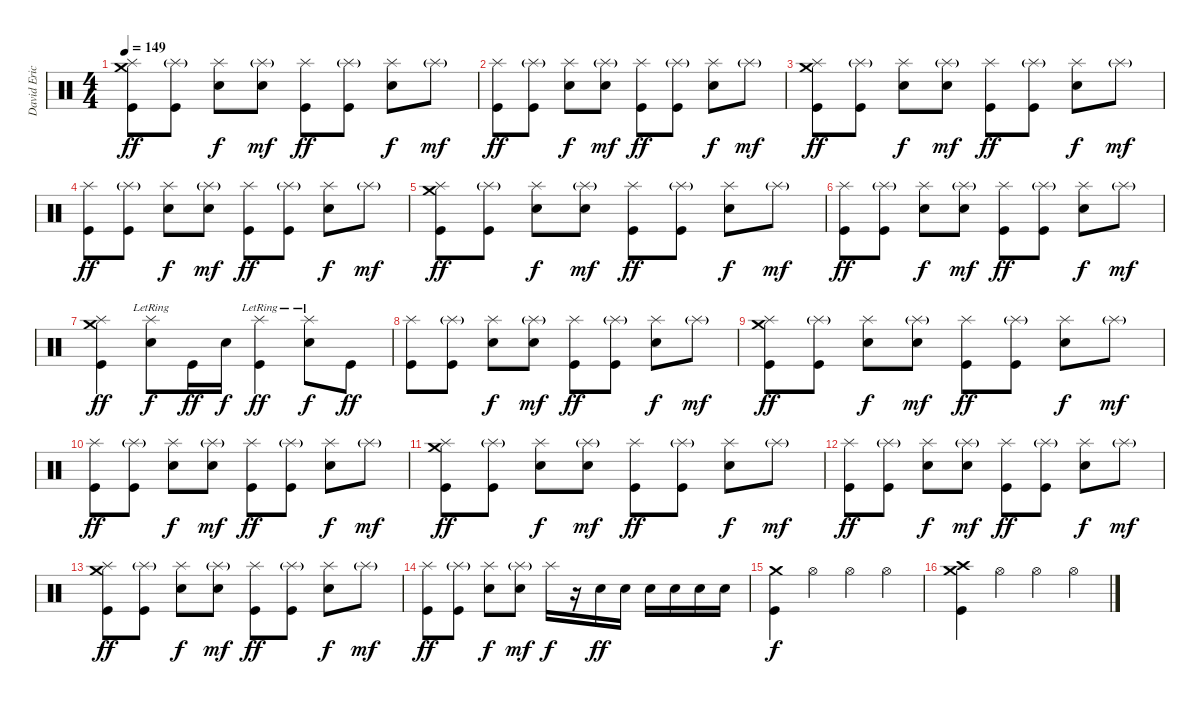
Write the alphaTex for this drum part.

\track ("David Eric Grohl" "David Eric") {instrument percussion}
\staff {score}
\articulation defaults
\ts (4 4)
\tempo 149
\clef neutral
\ks c
("Crash medium (hit)" "Splash (hit)" "Kick (hit)").8{dy ff} ("Splash (hit)"{g} "Kick (hit)").8 ("Splash (hit)" "Snare (hit) 2").8{dy f} ("Splash (hit)"{g} "Snare (hit) 2").8{dy mf} ("Splash (hit)" "Kick (hit)").8{dy ff} ("Splash (hit)"{g} "Kick (hit)").8 ("Splash (hit)" "Snare (hit) 2").8{dy f} "Splash (hit)"{g}.8{dy mf} |
("Splash (hit)" "Kick (hit)").8{dy ff} ("Splash (hit)"{g} "Kick (hit)").8 ("Splash (hit)" "Snare (hit) 2").8{dy f} ("Splash (hit)"{g} "Snare (hit) 2").8{dy mf} ("Splash (hit)" "Kick (hit)").8{dy ff} ("Splash (hit)"{g} "Kick (hit)").8 ("Splash (hit)" "Snare (hit) 2").8{dy f} "Splash (hit)"{g}.8{dy mf} |
("Crash medium (hit)" "Splash (hit)" "Kick (hit)").8{dy ff} ("Splash (hit)"{g} "Kick (hit)").8 ("Splash (hit)" "Snare (hit) 2").8{dy f} ("Splash (hit)"{g} "Snare (hit) 2").8{dy mf} ("Splash (hit)" "Kick (hit)").8{dy ff} ("Splash (hit)"{g} "Kick (hit)").8 ("Splash (hit)" "Snare (hit) 2").8{dy f} "Splash (hit)"{g}.8{dy mf} |
("Splash (hit)" "Kick (hit)").8{dy ff} ("Splash (hit)"{g} "Kick (hit)").8 ("Splash (hit)" "Snare (hit) 2").8{dy f} ("Splash (hit)"{g} "Snare (hit) 2").8{dy mf} ("Splash (hit)" "Kick (hit)").8{dy ff} ("Splash (hit)"{g} "Kick (hit)").8 ("Splash (hit)" "Snare (hit) 2").8{dy f} "Splash (hit)"{g}.8{dy mf} |
("Crash medium (hit)" "Splash (hit)" "Kick (hit)").8{dy ff} ("Splash (hit)"{g} "Kick (hit)").8 ("Splash (hit)" "Snare (hit) 2").8{dy f} ("Splash (hit)"{g} "Snare (hit) 2").8{dy mf} ("Splash (hit)" "Kick (hit)").8{dy ff} ("Splash (hit)"{g} "Kick (hit)").8 ("Splash (hit)" "Snare (hit) 2").8{dy f} "Splash (hit)"{g}.8{dy mf} |
("Splash (hit)" "Kick (hit)").8{dy ff} ("Splash (hit)"{g} "Kick (hit)").8 ("Splash (hit)" "Snare (hit) 2").8{dy f} ("Splash (hit)"{g} "Snare (hit) 2").8{dy mf} ("Splash (hit)" "Kick (hit)").8{dy ff} ("Splash (hit)"{g} "Kick (hit)").8 ("Splash (hit)" "Snare (hit) 2").8{dy f} "Splash (hit)"{g}.8{dy mf} |
("Crash medium (hit)" "Splash (hit)" "Kick (hit)").4{dy ff} ("Splash (hit)"{lr} "Snare (hit) 2").8{dy f} "Kick (hit)".16{dy ff} "Snare (hit) 2".16{dy f} ("Splash (hit)"{lr} "Kick (hit)").4{dy ff} ("Splash (hit)"{lr} "Snare (hit) 2").8{dy f} "Kick (hit)".8{dy ff} |
("Splash (hit)" "Kick (hit)").8 ("Splash (hit)"{g} "Kick (hit)").8 ("Splash (hit)" "Snare (hit) 2").8{dy f} ("Splash (hit)"{g} "Snare (hit) 2").8{dy mf} ("Splash (hit)" "Kick (hit)").8{dy ff} ("Splash (hit)"{g} "Kick (hit)").8 ("Splash (hit)" "Snare (hit) 2").8{dy f} "Splash (hit)"{g}.8{dy mf} |
("Crash medium (hit)" "Splash (hit)" "Kick (hit)").8{dy ff} ("Splash (hit)"{g} "Kick (hit)").8 ("Splash (hit)" "Snare (hit) 2").8{dy f} ("Splash (hit)"{g} "Snare (hit) 2").8{dy mf} ("Splash (hit)" "Kick (hit)").8{dy ff} ("Splash (hit)"{g} "Kick (hit)").8 ("Splash (hit)" "Snare (hit) 2").8{dy f} "Splash (hit)"{g}.8{dy mf} |
("Splash (hit)" "Kick (hit)").8{dy ff} ("Splash (hit)"{g} "Kick (hit)").8 ("Splash (hit)" "Snare (hit) 2").8{dy f} ("Splash (hit)"{g} "Snare (hit) 2").8{dy mf} ("Splash (hit)" "Kick (hit)").8{dy ff} ("Splash (hit)"{g} "Kick (hit)").8 ("Splash (hit)" "Snare (hit) 2").8{dy f} "Splash (hit)"{g}.8{dy mf} |
("Crash medium (hit)" "Splash (hit)" "Kick (hit)").8{dy ff} ("Splash (hit)"{g} "Kick (hit)").8 ("Splash (hit)" "Snare (hit) 2").8{dy f} ("Splash (hit)"{g} "Snare (hit) 2").8{dy mf} ("Splash (hit)" "Kick (hit)").8{dy ff} ("Splash (hit)"{g} "Kick (hit)").8 ("Splash (hit)" "Snare (hit) 2").8{dy f} "Splash (hit)"{g}.8{dy mf} |
("Splash (hit)" "Kick (hit)").8{dy ff} ("Splash (hit)"{g} "Kick (hit)").8 ("Splash (hit)" "Snare (hit) 2").8{dy f} ("Splash (hit)"{g} "Snare (hit) 2").8{dy mf} ("Splash (hit)" "Kick (hit)").8{dy ff} ("Splash (hit)"{g} "Kick (hit)").8 ("Splash (hit)" "Snare (hit) 2").8{dy f} "Splash (hit)"{g}.8{dy mf} |
("Crash medium (hit)" "Splash (hit)" "Kick (hit)").8{dy ff} ("Splash (hit)"{g} "Kick (hit)").8 ("Splash (hit)" "Snare (hit) 2").8{dy f} ("Splash (hit)"{g} "Snare (hit) 2").8{dy mf} ("Splash (hit)" "Kick (hit)").8{dy ff} ("Splash (hit)"{g} "Kick (hit)").8 ("Splash (hit)" "Snare (hit) 2").8{dy f} "Splash (hit)"{g}.8{dy mf} |
("Splash (hit)" "Kick (hit)").8{dy ff} ("Splash (hit)"{g} "Kick (hit)").8 ("Splash (hit)" "Snare (hit) 2").8{dy f} ("Splash (hit)"{g} "Snare (hit) 2").8{dy mf} "Splash (hit)".16{dy f} r.16 "Snare (hit) 2".16{dy ff} "Snare (hit) 2".16 "Snare (hit) 2".16 "Snare (hit) 2".16 "Snare (hit) 2".16 "Snare (hit) 2".16 |
("Crash medium (hit)" "Kick (hit)").4{dy f} "Hi-Hat (open)".4 "Hi-Hat (open)".4 "Hi-Hat (open)".4 |
("Crash medium (hit)" "Crash high (hit)" "Kick (hit)").4 "Hi-Hat (open)".4 "Hi-Hat (open)".4 "Hi-Hat (open)".4
